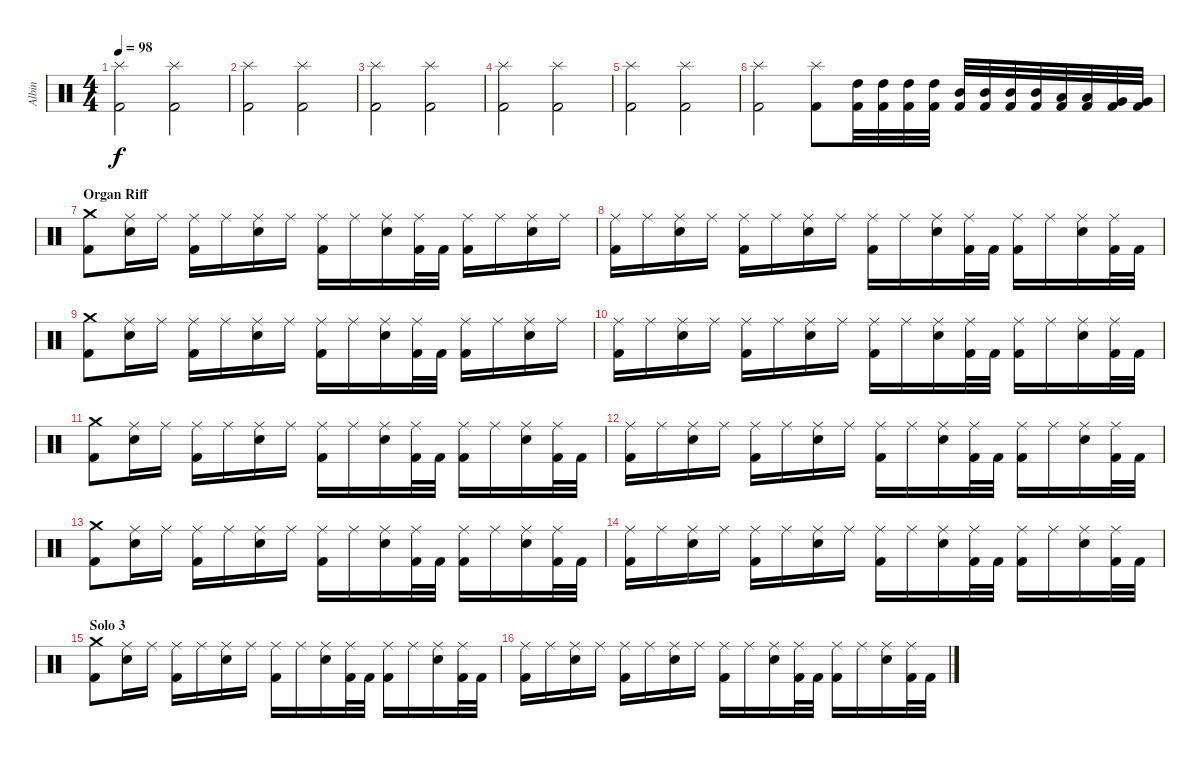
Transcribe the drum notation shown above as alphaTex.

\track ("Albin" "Albin") {instrument percussion}
\staff {score}
\articulation defaults
\ts (4 4)
\tempo 98
\clef neutral
\ks c
("Splash (hit)" "Kick (hit) 2").2{dy f} ("Splash (hit)" "Kick (hit) 2").2 |
("Splash (hit)" "Kick (hit) 2").2 ("Splash (hit)" "Kick (hit) 2").2 |
("Splash (hit)" "Kick (hit) 2").2 ("Splash (hit)" "Kick (hit) 2").2 |
("Splash (hit)" "Kick (hit) 2").2 ("Splash (hit)" "Kick (hit) 2").2 |
("Splash (hit)" "Kick (hit) 2").2 ("Splash (hit)" "Kick (hit) 2").2 |
("Splash (hit)" "Kick (hit) 2").2 ("Splash (hit)" "Kick (hit) 2").8 ("High Tom (hit)" "Kick (hit) 2").32 ("High Tom (hit)" "Kick (hit) 2").32 ("High Tom (hit)" "Kick (hit) 2").32 ("High Tom (hit)" "Kick (hit) 2").32 ("Mid Tom (hit)" "Kick (hit) 2").32 ("Mid Tom (hit)" "Kick (hit) 2").32 ("Mid Tom (hit)" "Kick (hit) 2").32 ("Mid Tom (hit)" "Kick (hit) 2").32 ("Low Tom (hit)" "Kick (hit) 2").32 ("Low Tom (hit)" "Kick (hit) 2").32 ("Very Low Tom (hit)" "Kick (hit) 2").32 ("Very Low Tom (hit)" "Kick (hit) 2").32 |
\section ("" "Organ Riff")
("Crash medium (hit)" "Kick (hit) 2").8 ("Ride (middle)" "Electric Snare (hit)").16 "Ride (middle)".16 ("Ride (middle)" "Kick (hit) 2").16 "Ride (middle)".16 ("Ride (middle)" "Electric Snare (hit)").16 "Ride (middle)".16 ("Ride (middle)" "Kick (hit) 2").16 "Ride (middle)".16 ("Ride (middle)" "Electric Snare (hit)").16 ("Ride (middle)" "Kick (hit) 2").32 "Kick (hit) 2".32 ("Ride (middle)" "Kick (hit) 2").16 "Ride (middle)".16 ("Ride (middle)" "Electric Snare (hit)").16 "Ride (middle)".16 |
("Ride (middle)" "Kick (hit) 2").16 "Ride (middle)".16 ("Ride (middle)" "Electric Snare (hit)").16 "Ride (middle)".16 ("Ride (middle)" "Kick (hit) 2").16 "Ride (middle)".16 ("Ride (middle)" "Electric Snare (hit)").16 "Ride (middle)".16 ("Ride (middle)" "Kick (hit) 2").16 "Ride (middle)".16 ("Ride (middle)" "Electric Snare (hit)").16 ("Ride (middle)" "Kick (hit) 2").32 "Kick (hit) 2".32 ("Ride (middle)" "Kick (hit) 2").16 "Ride (middle)".16 ("Ride (middle)" "Electric Snare (hit)").16 ("Ride (middle)" "Kick (hit) 2").32 "Kick (hit) 2".32 |
("Crash medium (hit)" "Kick (hit) 2").8 ("Ride (middle)" "Electric Snare (hit)").16 "Ride (middle)".16 ("Ride (middle)" "Kick (hit) 2").16 "Ride (middle)".16 ("Ride (middle)" "Electric Snare (hit)").16 "Ride (middle)".16 ("Ride (middle)" "Kick (hit) 2").16 "Ride (middle)".16 ("Ride (middle)" "Electric Snare (hit)").16 ("Ride (middle)" "Kick (hit) 2").32 "Kick (hit) 2".32 ("Ride (middle)" "Kick (hit) 2").16 "Ride (middle)".16 ("Ride (middle)" "Electric Snare (hit)").16 "Ride (middle)".16 |
("Ride (middle)" "Kick (hit) 2").16 "Ride (middle)".16 ("Ride (middle)" "Electric Snare (hit)").16 "Ride (middle)".16 ("Ride (middle)" "Kick (hit) 2").16 "Ride (middle)".16 ("Ride (middle)" "Electric Snare (hit)").16 "Ride (middle)".16 ("Ride (middle)" "Kick (hit) 2").16 "Ride (middle)".16 ("Ride (middle)" "Electric Snare (hit)").16 ("Ride (middle)" "Kick (hit) 2").32 "Kick (hit) 2".32 ("Ride (middle)" "Kick (hit) 2").16 "Ride (middle)".16 ("Ride (middle)" "Electric Snare (hit)").16 ("Ride (middle)" "Kick (hit) 2").32 "Kick (hit) 2".32 |
("Crash medium (hit)" "Kick (hit) 2").8 ("Ride (middle)" "Electric Snare (hit)").16 "Ride (middle)".16 ("Ride (middle)" "Kick (hit) 2").16 "Ride (middle)".16 ("Ride (middle)" "Electric Snare (hit)").16 "Ride (middle)".16 ("Ride (middle)" "Kick (hit) 2").16 "Ride (middle)".16 ("Ride (middle)" "Electric Snare (hit)").16 ("Ride (middle)" "Kick (hit) 2").32 "Kick (hit) 2".32 ("Ride (middle)" "Kick (hit) 2").16 "Ride (middle)".16 ("Ride (middle)" "Electric Snare (hit)").16 ("Ride (middle)" "Kick (hit) 2").32 "Kick (hit) 2".32 |
("Ride (middle)" "Kick (hit) 2").16 "Ride (middle)".16 ("Ride (middle)" "Electric Snare (hit)").16 "Ride (middle)".16 ("Ride (middle)" "Kick (hit) 2").16 "Ride (middle)".16 ("Ride (middle)" "Electric Snare (hit)").16 "Ride (middle)".16 ("Ride (middle)" "Kick (hit) 2").16 "Ride (middle)".16 ("Ride (middle)" "Electric Snare (hit)").16 ("Ride (middle)" "Kick (hit) 2").32 "Kick (hit) 2".32 ("Ride (middle)" "Kick (hit) 2").16 "Ride (middle)".16 ("Ride (middle)" "Electric Snare (hit)").16 ("Ride (middle)" "Kick (hit) 2").32 "Kick (hit) 2".32 |
("Crash medium (hit)" "Kick (hit) 2").8 ("Ride (middle)" "Electric Snare (hit)").16 "Ride (middle)".16 ("Ride (middle)" "Kick (hit) 2").16 "Ride (middle)".16 ("Ride (middle)" "Electric Snare (hit)").16 "Ride (middle)".16 ("Ride (middle)" "Kick (hit) 2").16 "Ride (middle)".16 ("Ride (middle)" "Electric Snare (hit)").16 ("Ride (middle)" "Kick (hit) 2").32 "Kick (hit) 2".32 ("Ride (middle)" "Kick (hit) 2").16 "Ride (middle)".16 ("Ride (middle)" "Electric Snare (hit)").16 ("Ride (middle)" "Kick (hit) 2").32 "Kick (hit) 2".32 |
("Ride (middle)" "Kick (hit) 2").16 "Ride (middle)".16 ("Ride (middle)" "Electric Snare (hit)").16 "Ride (middle)".16 ("Ride (middle)" "Kick (hit) 2").16 "Ride (middle)".16 ("Ride (middle)" "Electric Snare (hit)").16 "Ride (middle)".16 ("Ride (middle)" "Kick (hit) 2").16 "Ride (middle)".16 ("Ride (middle)" "Electric Snare (hit)").16 ("Ride (middle)" "Kick (hit) 2").32 "Kick (hit) 2".32 ("Ride (middle)" "Kick (hit) 2").16 "Ride (middle)".16 ("Ride (middle)" "Electric Snare (hit)").16 ("Ride (middle)" "Kick (hit) 2").32 "Kick (hit) 2".32 |
\section ("" "Solo 3")
("Crash medium (hit)" "Kick (hit) 2").8 ("Ride (middle)" "Electric Snare (hit)").16 "Ride (middle)".16 ("Ride (middle)" "Kick (hit) 2").16 "Ride (middle)".16 ("Ride (middle)" "Electric Snare (hit)").16 "Ride (middle)".16 ("Ride (middle)" "Kick (hit) 2").16 "Ride (middle)".16 ("Ride (middle)" "Electric Snare (hit)").16 ("Ride (middle)" "Kick (hit) 2").32 "Kick (hit) 2".32 ("Ride (middle)" "Kick (hit) 2").16 "Ride (middle)".16 ("Ride (middle)" "Electric Snare (hit)").16 ("Ride (middle)" "Kick (hit) 2").32 "Kick (hit) 2".32 |
("Ride (middle)" "Kick (hit) 2").16 "Ride (middle)".16 ("Ride (middle)" "Electric Snare (hit)").16 "Ride (middle)".16 ("Ride (middle)" "Kick (hit) 2").16 "Ride (middle)".16 ("Ride (middle)" "Electric Snare (hit)").16 "Ride (middle)".16 ("Ride (middle)" "Kick (hit) 2").16 "Ride (middle)".16 ("Ride (middle)" "Electric Snare (hit)").16 ("Ride (middle)" "Kick (hit) 2").32 "Kick (hit) 2".32 ("Ride (middle)" "Kick (hit) 2").16 "Ride (middle)".16 ("Ride (middle)" "Electric Snare (hit)").16 ("Ride (middle)" "Kick (hit) 2").32 "Kick (hit) 2".32
